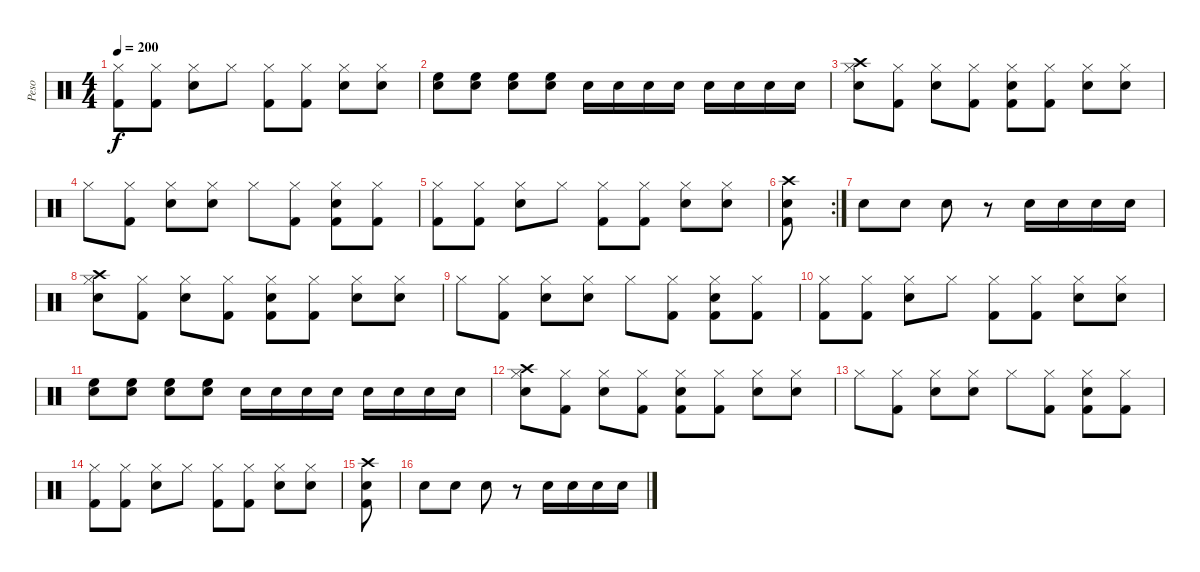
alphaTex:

\track ("Peso" "Peso") {instrument percussion}
\staff {score}
\articulation defaults
\ts (4 4)
\tempo 200
\clef neutral
\ks c
("Hi-Hat (closed)" "Kick (hit) 2").8{dy f} ("Hi-Hat (closed)" "Kick (hit) 2").8 ("Hi-Hat (closed)" "Snare (hit) 2").8 "Hi-Hat (closed)".8 ("Hi-Hat (closed)" "Kick (hit) 2").8 ("Hi-Hat (closed)" "Kick (hit) 2").8 ("Hi-Hat (closed)" "Snare (hit) 2").8 ("Hi-Hat (closed)" "Snare (hit) 2").8 |
("High Floor Tom (hit)" "Snare (hit) 2").8 ("High Floor Tom (hit)" "Snare (hit) 2").8 ("High Floor Tom (hit)" "Snare (hit) 2").8 ("High Floor Tom (hit)" "Snare (hit) 2").8 "Snare (hit) 2".16 "Snare (hit) 2".16 "Snare (hit) 2".16 "Snare (hit) 2".16 "Snare (hit) 2".16 "Snare (hit) 2".16 "Snare (hit) 2".16 "Snare (hit) 2".16 |
("Crash high (hit)" "Hi-Hat (closed)" "Snare (hit) 2").8 ("Hi-Hat (closed)" "Kick (hit) 2").8 ("Hi-Hat (closed)" "Snare (hit) 2").8 ("Hi-Hat (closed)" "Kick (hit) 2").8 ("Hi-Hat (closed)" "Snare (hit) 2" "Kick (hit) 2").8 ("Hi-Hat (closed)" "Kick (hit) 2").8 ("Hi-Hat (closed)" "Snare (hit) 2").8 ("Hi-Hat (closed)" "Snare (hit) 2").8 |
"Hi-Hat (closed)".8 ("Hi-Hat (closed)" "Kick (hit) 2").8 ("Hi-Hat (closed)" "Snare (hit) 2").8 ("Hi-Hat (closed)" "Snare (hit) 2").8 "Hi-Hat (closed)".8 ("Hi-Hat (closed)" "Kick (hit) 2").8 ("Hi-Hat (closed)" "Snare (hit) 2" "Kick (hit) 2").8 ("Hi-Hat (closed)" "Kick (hit) 2").8 |
("Hi-Hat (closed)" "Kick (hit) 2").8 ("Hi-Hat (closed)" "Kick (hit) 2").8 ("Hi-Hat (closed)" "Snare (hit) 2").8 "Hi-Hat (closed)".8 ("Hi-Hat (closed)" "Kick (hit) 2").8 ("Hi-Hat (closed)" "Kick (hit) 2").8 ("Hi-Hat (closed)" "Snare (hit) 2").8 ("Hi-Hat (closed)" "Snare (hit) 2").8 |
\rc 2
("Crash high (hit)" "Snare (hit) 2" "Kick (hit) 2").8 |
"Snare (hit) 2".8 "Snare (hit) 2".8 "Snare (hit) 2".8 r.8 "Snare (hit) 2".16 "Snare (hit) 2".16 "Snare (hit) 2".16 "Snare (hit) 2".16 |
("Crash high (hit)" "Hi-Hat (closed)" "Snare (hit) 2").8 ("Hi-Hat (closed)" "Kick (hit) 2").8 ("Hi-Hat (closed)" "Snare (hit) 2").8 ("Hi-Hat (closed)" "Kick (hit) 2").8 ("Hi-Hat (closed)" "Snare (hit) 2" "Kick (hit) 2").8 ("Hi-Hat (closed)" "Kick (hit) 2").8 ("Hi-Hat (closed)" "Snare (hit) 2").8 ("Hi-Hat (closed)" "Snare (hit) 2").8 |
"Hi-Hat (closed)".8 ("Hi-Hat (closed)" "Kick (hit) 2").8 ("Hi-Hat (closed)" "Snare (hit) 2").8 ("Hi-Hat (closed)" "Snare (hit) 2").8 "Hi-Hat (closed)".8 ("Hi-Hat (closed)" "Kick (hit) 2").8 ("Hi-Hat (closed)" "Snare (hit) 2" "Kick (hit) 2").8 ("Hi-Hat (closed)" "Kick (hit) 2").8 |
("Hi-Hat (closed)" "Kick (hit) 2").8 ("Hi-Hat (closed)" "Kick (hit) 2").8 ("Hi-Hat (closed)" "Snare (hit) 2").8 "Hi-Hat (closed)".8 ("Hi-Hat (closed)" "Kick (hit) 2").8 ("Hi-Hat (closed)" "Kick (hit) 2").8 ("Hi-Hat (closed)" "Snare (hit) 2").8 ("Hi-Hat (closed)" "Snare (hit) 2").8 |
("High Floor Tom (hit)" "Snare (hit) 2").8 ("High Floor Tom (hit)" "Snare (hit) 2").8 ("High Floor Tom (hit)" "Snare (hit) 2").8 ("High Floor Tom (hit)" "Snare (hit) 2").8 "Snare (hit) 2".16 "Snare (hit) 2".16 "Snare (hit) 2".16 "Snare (hit) 2".16 "Snare (hit) 2".16 "Snare (hit) 2".16 "Snare (hit) 2".16 "Snare (hit) 2".16 |
("Crash high (hit)" "Hi-Hat (closed)" "Snare (hit) 2").8 ("Hi-Hat (closed)" "Kick (hit) 2").8 ("Hi-Hat (closed)" "Snare (hit) 2").8 ("Hi-Hat (closed)" "Kick (hit) 2").8 ("Hi-Hat (closed)" "Snare (hit) 2" "Kick (hit) 2").8 ("Hi-Hat (closed)" "Kick (hit) 2").8 ("Hi-Hat (closed)" "Snare (hit) 2").8 ("Hi-Hat (closed)" "Snare (hit) 2").8 |
"Hi-Hat (closed)".8 ("Hi-Hat (closed)" "Kick (hit) 2").8 ("Hi-Hat (closed)" "Snare (hit) 2").8 ("Hi-Hat (closed)" "Snare (hit) 2").8 "Hi-Hat (closed)".8 ("Hi-Hat (closed)" "Kick (hit) 2").8 ("Hi-Hat (closed)" "Snare (hit) 2" "Kick (hit) 2").8 ("Hi-Hat (closed)" "Kick (hit) 2").8 |
("Hi-Hat (closed)" "Kick (hit) 2").8 ("Hi-Hat (closed)" "Kick (hit) 2").8 ("Hi-Hat (closed)" "Snare (hit) 2").8 "Hi-Hat (closed)".8 ("Hi-Hat (closed)" "Kick (hit) 2").8 ("Hi-Hat (closed)" "Kick (hit) 2").8 ("Hi-Hat (closed)" "Snare (hit) 2").8 ("Hi-Hat (closed)" "Snare (hit) 2").8 |
("Crash high (hit)" "Snare (hit) 2" "Kick (hit) 2").8 |
"Snare (hit) 2".8 "Snare (hit) 2".8 "Snare (hit) 2".8 r.8 "Snare (hit) 2".16 "Snare (hit) 2".16 "Snare (hit) 2".16 "Snare (hit) 2".16
